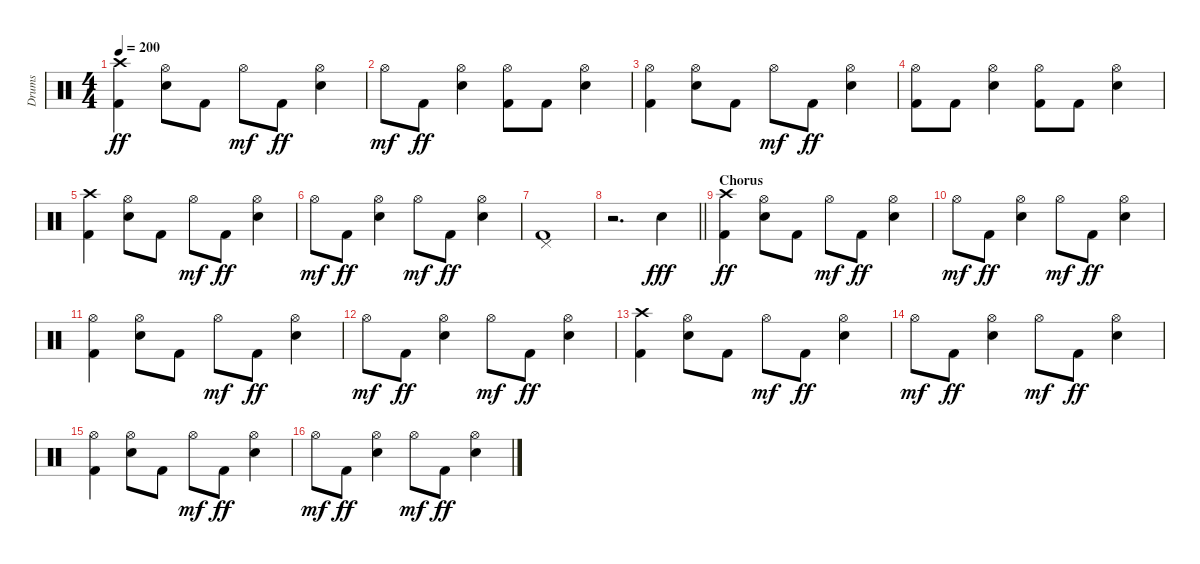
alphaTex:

\track ("Drums" "Drums") {instrument percussion}
\staff {score}
\articulation defaults
\ts (4 4)
\tempo 200
\clef neutral
\ks c
("Crash high (hit)" "Kick (hit) 2").4{dy ff} ("Hi-Hat (open)" "Electric Snare (hit)").8 "Kick (hit) 2".8 "Hi-Hat (open)".8{dy mf} "Kick (hit) 2".8{dy ff} ("Hi-Hat (open)" "Electric Snare (hit)").4 |
"Hi-Hat (open)".8{dy mf} "Kick (hit) 2".8{dy ff} ("Hi-Hat (open)" "Electric Snare (hit)").4 ("Hi-Hat (open)" "Kick (hit) 2").8 "Kick (hit) 2".8 ("Hi-Hat (open)" "Electric Snare (hit)").4 |
("Hi-Hat (open)" "Kick (hit) 2").4 ("Hi-Hat (open)" "Electric Snare (hit)").8 "Kick (hit) 2".8 "Hi-Hat (open)".8{dy mf} "Kick (hit) 2".8{dy ff} ("Hi-Hat (open)" "Electric Snare (hit)").4 |
("Hi-Hat (open)" "Kick (hit) 2").8 "Kick (hit) 2".8 ("Hi-Hat (open)" "Electric Snare (hit)").4 ("Hi-Hat (open)" "Kick (hit) 2").8 "Kick (hit) 2".8 ("Hi-Hat (open)" "Electric Snare (hit)").4 |
("Crash high (hit)" "Kick (hit) 2").4 ("Hi-Hat (open)" "Electric Snare (hit)").8 "Kick (hit) 2".8 "Hi-Hat (open)".8{dy mf} "Kick (hit) 2".8{dy ff} ("Hi-Hat (open)" "Electric Snare (hit)").4 |
"Hi-Hat (open)".8{dy mf} "Kick (hit) 2".8{dy ff} ("Hi-Hat (open)" "Electric Snare (hit)").4 "Hi-Hat (open)".8{dy mf} "Kick (hit) 2".8{dy ff} ("Hi-Hat (open)" "Electric Snare (hit)").4 |
("Pedal Hi-Hat (hit)" "Kick (hit) 2").1 |
\barLineRight lightlight
r.2{d} "Electric Snare (hit)".4{dy fff} |
\section ("" "Chorus")
("Crash high (hit)" "Kick (hit) 2").4{dy ff} ("Hi-Hat (open)" "Electric Snare (hit)").8 "Kick (hit) 2".8 "Hi-Hat (open)".8{dy mf} "Kick (hit) 2".8{dy ff} ("Hi-Hat (open)" "Electric Snare (hit)").4 |
"Hi-Hat (open)".8{dy mf} "Kick (hit) 2".8{dy ff} ("Hi-Hat (open)" "Electric Snare (hit)").4 "Hi-Hat (open)".8{dy mf} "Kick (hit) 2".8{dy ff} ("Hi-Hat (open)" "Electric Snare (hit)").4 |
("Hi-Hat (open)" "Kick (hit) 2").4 ("Hi-Hat (open)" "Electric Snare (hit)").8 "Kick (hit) 2".8 "Hi-Hat (open)".8{dy mf} "Kick (hit) 2".8{dy ff} ("Hi-Hat (open)" "Electric Snare (hit)").4 |
"Hi-Hat (open)".8{dy mf} "Kick (hit) 2".8{dy ff} ("Hi-Hat (open)" "Electric Snare (hit)").4 "Hi-Hat (open)".8{dy mf} "Kick (hit) 2".8{dy ff} ("Hi-Hat (open)" "Electric Snare (hit)").4 |
("Crash high (hit)" "Kick (hit) 2").4 ("Hi-Hat (open)" "Electric Snare (hit)").8 "Kick (hit) 2".8 "Hi-Hat (open)".8{dy mf} "Kick (hit) 2".8{dy ff} ("Hi-Hat (open)" "Electric Snare (hit)").4 |
"Hi-Hat (open)".8{dy mf} "Kick (hit) 2".8{dy ff} ("Hi-Hat (open)" "Electric Snare (hit)").4 "Hi-Hat (open)".8{dy mf} "Kick (hit) 2".8{dy ff} ("Hi-Hat (open)" "Electric Snare (hit)").4 |
("Hi-Hat (open)" "Kick (hit) 2").4 ("Hi-Hat (open)" "Electric Snare (hit)").8 "Kick (hit) 2".8 "Hi-Hat (open)".8{dy mf} "Kick (hit) 2".8{dy ff} ("Hi-Hat (open)" "Electric Snare (hit)").4 |
"Hi-Hat (open)".8{dy mf} "Kick (hit) 2".8{dy ff} ("Hi-Hat (open)" "Electric Snare (hit)").4 "Hi-Hat (open)".8{dy mf} "Kick (hit) 2".8{dy ff} ("Hi-Hat (open)" "Electric Snare (hit)").4
